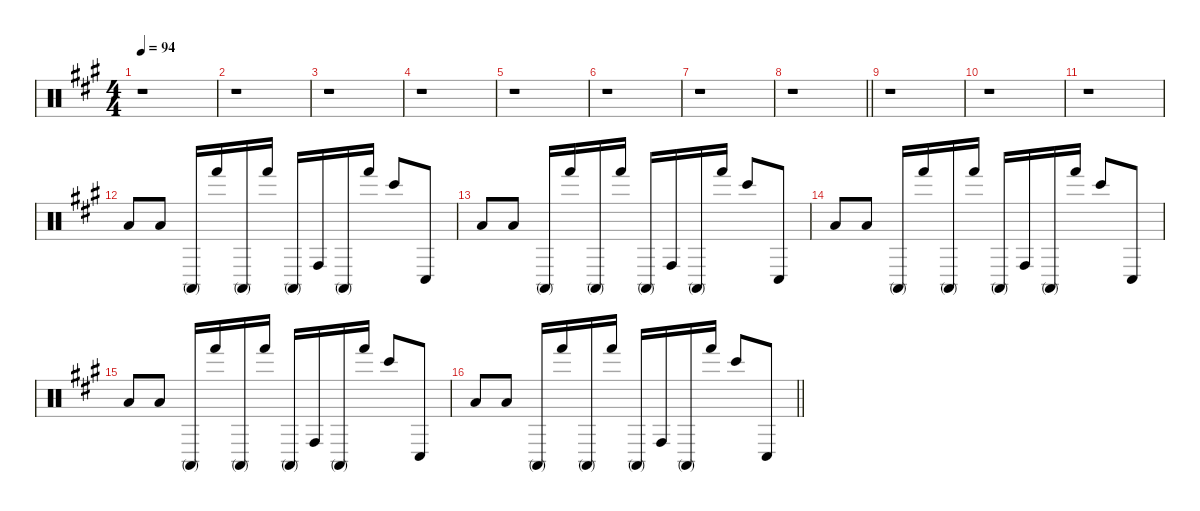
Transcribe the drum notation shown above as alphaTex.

\defaultSystemsLayout 4
\hideDynamics
\bracketExtendMode nobrackets
\singleTrackTrackNamePolicy hidden
\multiTrackTrackNamePolicy hidden
\firstSystemTrackNameMode fullname
\firstSystemTrackNameOrientation horizontal
\otherSystemsTrackNameOrientation horizontal
\track ("Bongos" "drm.") {defaultSystemsLayout 4 instrument percussion}
\staff {score}
\articulation defaults
\ts (4 4)
\tempo 94
\clef neutral
\ks a
r.1{dy f beam Down} |
r.1{beam Down} |
r.1{beam Down} |
r.1{beam Down} |
r.1{beam Down} |
r.1{beam Down} |
r.1{beam Down} |
\barLineRight lightlight
r.1{beam Down} |
r.1{beam Down} |
r.1{beam Down} |
r.1{beam Down} |
"Low Floor Tom (hit)"{acc forcenatural}.8{beam Up} "Low Floor Tom (hit)"{acc forcenatural}.8{beam Up} "Conga high (mute)"{acc forcenatural}.16{beam Up} "Hand (hit)"{acc forcenatural}.16{beam Up} "Conga high (mute)"{acc forcenatural}.16{beam Up} "Hand (hit)"{acc forcenatural}.16{beam Up} "Conga high (mute)"{acc forcenatural}.16{beam Up} "Conga high (hit)"{acc forcenatural}.16{beam Up} "Conga high (mute)"{acc forcenatural}.16{beam Up} "Hand (hit)"{acc forcenatural}.16{beam Up} "Bongo High (hit)"{acc forcenatural}.8{beam Up} "Conga low (hit)"{acc forcenatural}.8{beam Up} |
"Low Floor Tom (hit)"{acc forcenatural}.8{beam Up} "Low Floor Tom (hit)"{acc forcenatural}.8{beam Up} "Conga high (mute)"{acc forcenatural}.16{beam Up} "Hand (hit)"{acc forcenatural}.16{beam Up} "Conga high (mute)"{acc forcenatural}.16{beam Up} "Hand (hit)"{acc forcenatural}.16{beam Up} "Conga high (mute)"{acc forcenatural}.16{beam Up} "Conga high (hit)"{acc forcenatural}.16{beam Up} "Conga high (mute)"{acc forcenatural}.16{beam Up} "Hand (hit)"{acc forcenatural}.16{beam Up} "Bongo High (hit)"{acc forcenatural}.8{beam Up} "Conga low (hit)"{acc forcenatural}.8{beam Up} |
"Low Floor Tom (hit)"{acc forcenatural}.8{beam Up} "Low Floor Tom (hit)"{acc forcenatural}.8{beam Up} "Conga high (mute)"{acc forcenatural}.16{beam Up} "Hand (hit)"{acc forcenatural}.16{beam Up} "Conga high (mute)"{acc forcenatural}.16{beam Up} "Hand (hit)"{acc forcenatural}.16{beam Up} "Conga high (mute)"{acc forcenatural}.16{beam Up} "Conga high (hit)"{acc forcenatural}.16{beam Up} "Conga high (mute)"{acc forcenatural}.16{beam Up} "Hand (hit)"{acc forcenatural}.16{beam Up} "Bongo High (hit)"{acc forcenatural}.8{beam Up} "Conga low (hit)"{acc forcenatural}.8{beam Up} |
"Low Floor Tom (hit)"{acc forcenatural}.8{beam Up} "Low Floor Tom (hit)"{acc forcenatural}.8{beam Up} "Conga high (mute)"{acc forcenatural}.16{beam Up} "Hand (hit)"{acc forcenatural}.16{beam Up} "Conga high (mute)"{acc forcenatural}.16{beam Up} "Hand (hit)"{acc forcenatural}.16{beam Up} "Conga high (mute)"{acc forcenatural}.16{beam Up} "Conga high (hit)"{acc forcenatural}.16{beam Up} "Conga high (mute)"{acc forcenatural}.16{beam Up} "Hand (hit)"{acc forcenatural}.16{beam Up} "Bongo High (hit)"{acc forcenatural}.8{beam Up} "Conga low (hit)"{acc forcenatural}.8{beam Up} |
\barLineRight lightlight "Low Floor Tom (hit)"{acc forcenatural}.8{beam Up} "Low Floor Tom (hit)"{acc forcenatural}.8{beam Up} "Conga high (mute)"{acc forcenatural}.16{beam Up} "Hand (hit)"{acc forcenatural}.16{beam Up} "Conga high (mute)"{acc forcenatural}.16{beam Up} "Hand (hit)"{acc forcenatural}.16{beam Up} "Conga high (mute)"{acc forcenatural}.16{beam Up} "Conga high (hit)"{acc forcenatural}.16{beam Up} "Conga high (mute)"{acc forcenatural}.16{beam Up} "Hand (hit)"{acc forcenatural}.16{beam Up} "Bongo High (hit)"{acc forcenatural}.8{beam Up} "Conga low (hit)"{acc forcenatural}.8{beam Up}
